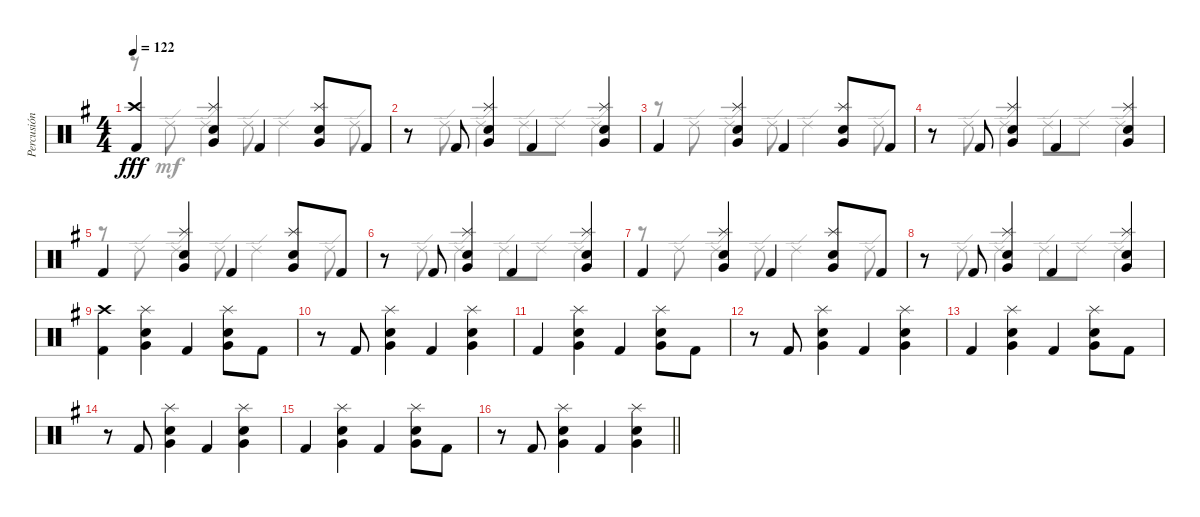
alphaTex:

\track ("Percusión" "Percusión") {instrument percussion}
\staff {score}
\articulation defaults
\voice
\ts (4 4)
\tempo 122
\clef neutral
\ks g
("Crash high (hit)" "Kick (hit) 2").4{dy fff} ("Splash (hit)" "Very Low Tom (hit)" "Snare (hit) 2").4 "Kick (hit) 2".4 ("Splash (hit)" "Very Low Tom (hit)" "Snare (hit) 2").8 "Kick (hit) 2".8 |
r.8 "Kick (hit) 2".8 ("Splash (hit)" "Very Low Tom (hit)" "Snare (hit) 2").4 "Kick (hit) 2".4 ("Splash (hit)" "Very Low Tom (hit)" "Snare (hit) 2").4 |
"Kick (hit) 2".4 ("Splash (hit)" "Very Low Tom (hit)" "Snare (hit) 2").4 "Kick (hit) 2".4 ("Splash (hit)" "Very Low Tom (hit)" "Snare (hit) 2").8 "Kick (hit) 2".8 |
r.8 "Kick (hit) 2".8 ("Splash (hit)" "Very Low Tom (hit)" "Snare (hit) 2").4 "Kick (hit) 2".4 ("Splash (hit)" "Very Low Tom (hit)" "Snare (hit) 2").4 |
"Kick (hit) 2".4 ("Splash (hit)" "Very Low Tom (hit)" "Snare (hit) 2").4 "Kick (hit) 2".4 ("Splash (hit)" "Very Low Tom (hit)" "Snare (hit) 2").8 "Kick (hit) 2".8 |
r.8 "Kick (hit) 2".8 ("Splash (hit)" "Very Low Tom (hit)" "Snare (hit) 2").4 "Kick (hit) 2".4 ("Splash (hit)" "Very Low Tom (hit)" "Snare (hit) 2").4 |
"Kick (hit) 2".4 ("Splash (hit)" "Very Low Tom (hit)" "Snare (hit) 2").4 "Kick (hit) 2".4 ("Splash (hit)" "Very Low Tom (hit)" "Snare (hit) 2").8 "Kick (hit) 2".8 |
r.8 "Kick (hit) 2".8 ("Splash (hit)" "Very Low Tom (hit)" "Snare (hit) 2").4 "Kick (hit) 2".4 ("Splash (hit)" "Very Low Tom (hit)" "Snare (hit) 2").4 |
("Crash high (hit)" "Kick (hit) 2").4 ("Splash (hit)" "Very Low Tom (hit)" "Snare (hit) 2").4 "Kick (hit) 2".4 ("Splash (hit)" "Very Low Tom (hit)" "Snare (hit) 2").8 "Kick (hit) 2".8 |
r.8 "Kick (hit) 2".8 ("Splash (hit)" "Very Low Tom (hit)" "Snare (hit) 2").4 "Kick (hit) 2".4 ("Splash (hit)" "Very Low Tom (hit)" "Snare (hit) 2").4 |
"Kick (hit) 2".4 ("Splash (hit)" "Very Low Tom (hit)" "Snare (hit) 2").4 "Kick (hit) 2".4 ("Splash (hit)" "Very Low Tom (hit)" "Snare (hit) 2").8 "Kick (hit) 2".8 |
r.8 "Kick (hit) 2".8 ("Splash (hit)" "Very Low Tom (hit)" "Snare (hit) 2").4 "Kick (hit) 2".4 ("Splash (hit)" "Very Low Tom (hit)" "Snare (hit) 2").4 |
"Kick (hit) 2".4 ("Splash (hit)" "Very Low Tom (hit)" "Snare (hit) 2").4 "Kick (hit) 2".4 ("Splash (hit)" "Very Low Tom (hit)" "Snare (hit) 2").8 "Kick (hit) 2".8 |
r.8 "Kick (hit) 2".8 ("Splash (hit)" "Very Low Tom (hit)" "Snare (hit) 2").4 "Kick (hit) 2".4 ("Splash (hit)" "Very Low Tom (hit)" "Snare (hit) 2").4 |
"Kick (hit) 2".4 ("Splash (hit)" "Very Low Tom (hit)" "Snare (hit) 2").4 "Kick (hit) 2".4 ("Splash (hit)" "Very Low Tom (hit)" "Snare (hit) 2").8 "Kick (hit) 2".8 |
\barLineRight lightlight
r.8 "Kick (hit) 2".8 ("Splash (hit)" "Very Low Tom (hit)" "Snare (hit) 2").4 "Kick (hit) 2".4 ("Splash (hit)" "Very Low Tom (hit)" "Snare (hit) 2").4
\voice
\clef neutral
\ottava regular
\simile none
\ks g
r.8{dy mf} "Ride (edge) 2".8 "Ride (edge) 2".4 "Ride (edge) 2".8 "Ride (edge) 2".4 "Ride (edge) 2".8 |
r.8 "Ride (edge) 2".8 "Ride (edge) 2".4 "Ride (edge) 2".8 "Ride (edge) 2".8 "Ride (edge) 2".4 |
r.8 "Ride (edge) 2".8 "Ride (edge) 2".4 "Ride (edge) 2".8 "Ride (edge) 2".4 "Ride (edge) 2".8 |
r.8 "Ride (edge) 2".8 "Ride (edge) 2".4 "Ride (edge) 2".8 "Ride (edge) 2".8 "Ride (edge) 2".4 |
r.8 "Ride (edge) 2".8 "Ride (edge) 2".4 "Ride (edge) 2".8 "Ride (edge) 2".4 "Ride (edge) 2".8 |
r.8 "Ride (edge) 2".8 "Ride (edge) 2".4 "Ride (edge) 2".8 "Ride (edge) 2".8 "Ride (edge) 2".4 |
r.8 "Ride (edge) 2".8 "Ride (edge) 2".4 "Ride (edge) 2".8 "Ride (edge) 2".4 "Ride (edge) 2".8 |
r.8 "Ride (edge) 2".8 "Ride (edge) 2".4 "Ride (edge) 2".8 "Ride (edge) 2".8 "Ride (edge) 2".4 |
|
|
|
|
|
|
|
\barLineRight lightlight
